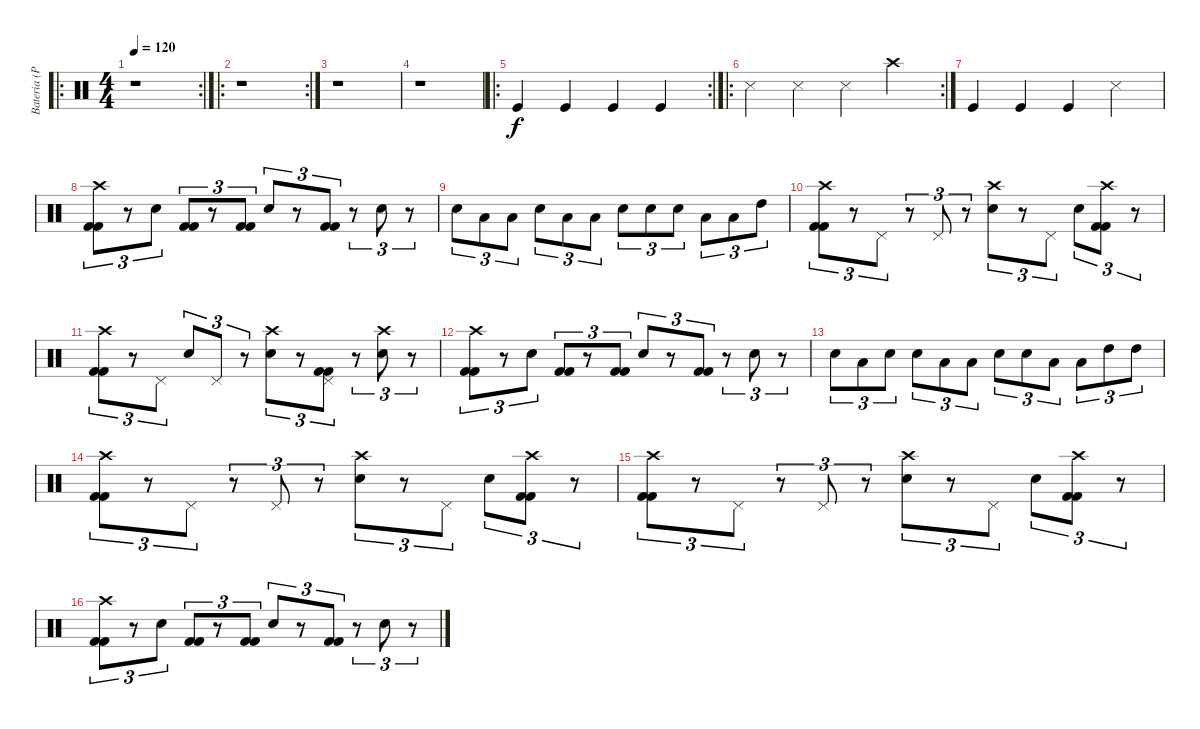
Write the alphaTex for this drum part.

\track ("Bateria (Pedro Cota)" "Bateria (P") {instrument percussion}
\staff {score}
\articulation defaults
\ro
\rc 2
\ts (4 4)
\tempo 120
\clef neutral
\ks c
r.1{dy f} |
\ro
\rc 2
r.1 |
r.1 |
r.1 |
\ro
\rc 2 "Kick (hit)".4 "Kick (hit)".4 "Kick (hit)".4 "Kick (hit)".4
|
\ro
\rc 2 "Snare (side stick) 3".4 "Snare (side stick) 3".4 "Snare (side stick) 3".4 "Crash high (hit)".4
|
"Kick (hit)".4 "Kick (hit)".4 "Kick (hit)".4 "Snare (side stick) 3".4 |
("Crash high (hit)" "Kick (hit) 2" "Kick (hit) 2").8{tu (3 2)} r.8{tu (3 2)} "Snare (hit) 2".8{tu (3 2)} ("Kick (hit) 2" "Kick (hit) 2").8{tu (3 2)} r.8{tu (3 2)} ("Kick (hit) 2" "Kick (hit) 2").8{tu (3 2)} "Snare (hit) 2".8{tu (3 2)} r.8{tu (3 2)} ("Kick (hit) 2" "Kick (hit) 2").8{tu (3 2)} r.8{tu (3 2)} "Snare (hit) 2".8{tu (3 2)} r.8{tu (3 2)} |
"Snare (hit) 2".8{tu (3 2)} "Low Tom (hit)".8{tu (3 2)} "Low Tom (hit)".8{tu (3 2)} "Snare (hit) 2".8{tu (3 2)} "Low Tom (hit)".8{tu (3 2)} "Low Tom (hit)".8{tu (3 2)} "Snare (hit) 2".8{tu (3 2)} "Snare (hit) 2".8{tu (3 2)} "Snare (hit) 2".8{tu (3 2)} "Low Tom (hit)".8{tu (3 2)} "Low Tom (hit)".8{tu (3 2)} "High Tom (hit)".8{tu (3 2)} |
("Crash high (hit)" "Kick (hit) 2" "Kick (hit) 2").8{tu (3 2)} r.8{tu (3 2)} "Pedal Hi-Hat (hit)".8{tu (3 2)} r.8{tu (3 2)} "Pedal Hi-Hat (hit)".8{tu (3 2)} r.8{tu (3 2)} ("Crash high (hit)" "Snare (hit) 2").8{tu (3 2)} r.8{tu (3 2)} "Pedal Hi-Hat (hit)".8{tu (3 2)} "Snare (hit) 2".8{tu (3 2)} ("Crash high (hit)" "Kick (hit) 2" "Kick (hit) 2").8{tu (3 2)} r.8{tu (3 2)} |
("Crash high (hit)" "Kick (hit) 2" "Kick (hit) 2").8{tu (3 2)} r.8{tu (3 2)} "Pedal Hi-Hat (hit)".8{tu (3 2)} "Snare (hit) 2".8{tu (3 2)} "Pedal Hi-Hat (hit)".8{tu (3 2)} r.8{tu (3 2)} ("Crash high (hit)" "Snare (hit) 2").8{tu (3 2)} r.8{tu (3 2)} ("Pedal Hi-Hat (hit)" "Kick (hit) 2" "Kick (hit) 2").8{tu (3 2)} r.8{tu (3 2)} ("Crash high (hit)" "Snare (hit) 2").8{tu (3 2)} r.8{tu (3 2)} |
("Crash high (hit)" "Kick (hit) 2" "Kick (hit) 2").8{tu (3 2)} r.8{tu (3 2)} "Snare (hit) 2".8{tu (3 2)} ("Kick (hit) 2" "Kick (hit) 2").8{tu (3 2)} r.8{tu (3 2)} ("Kick (hit) 2" "Kick (hit) 2").8{tu (3 2)} "Snare (hit) 2".8{tu (3 2)} r.8{tu (3 2)} ("Kick (hit) 2" "Kick (hit) 2").8{tu (3 2)} r.8{tu (3 2)} "Snare (hit) 2".8{tu (3 2)} r.8{tu (3 2)} |
"Snare (hit) 2".8{tu (3 2)} "Low Tom (hit)".8{tu (3 2)} "Snare (hit) 2".8{tu (3 2)} "Snare (hit) 2".8{tu (3 2)} "Low Tom (hit)".8{tu (3 2)} "Low Tom (hit)".8{tu (3 2)} "Snare (hit) 2".8{tu (3 2)} "Snare (hit) 2".8{tu (3 2)} "Low Tom (hit)".8{tu (3 2)} "Low Tom (hit)".8{tu (3 2)} "High Tom (hit)".8{tu (3 2)} "High Tom (hit)".8{tu (3 2)} |
("Crash high (hit)" "Kick (hit) 2" "Kick (hit) 2").8{tu (3 2)} r.8{tu (3 2)} "Pedal Hi-Hat (hit)".8{tu (3 2)} r.8{tu (3 2)} "Pedal Hi-Hat (hit)".8{tu (3 2)} r.8{tu (3 2)} ("Crash high (hit)" "Snare (hit) 2").8{tu (3 2)} r.8{tu (3 2)} "Pedal Hi-Hat (hit)".8{tu (3 2)} "Snare (hit) 2".8{tu (3 2)} ("Crash high (hit)" "Kick (hit) 2" "Kick (hit) 2").8{tu (3 2)} r.8{tu (3 2)} |
("Crash high (hit)" "Kick (hit) 2" "Kick (hit) 2").8{tu (3 2)} r.8{tu (3 2)} "Pedal Hi-Hat (hit)".8{tu (3 2)} r.8{tu (3 2)} "Pedal Hi-Hat (hit)".8{tu (3 2)} r.8{tu (3 2)} ("Crash high (hit)" "Snare (hit) 2").8{tu (3 2)} r.8{tu (3 2)} "Pedal Hi-Hat (hit)".8{tu (3 2)} "Snare (hit) 2".8{tu (3 2)} ("Crash high (hit)" "Kick (hit) 2" "Kick (hit) 2").8{tu (3 2)} r.8{tu (3 2)} |
("Crash high (hit)" "Kick (hit) 2" "Kick (hit) 2").8{tu (3 2)} r.8{tu (3 2)} "Snare (hit) 2".8{tu (3 2)} ("Kick (hit) 2" "Kick (hit) 2").8{tu (3 2)} r.8{tu (3 2)} ("Kick (hit) 2" "Kick (hit) 2").8{tu (3 2)} "Snare (hit) 2".8{tu (3 2)} r.8{tu (3 2)} ("Kick (hit) 2" "Kick (hit) 2").8{tu (3 2)} r.8{tu (3 2)} "Snare (hit) 2".8{tu (3 2)} r.8{tu (3 2)}
